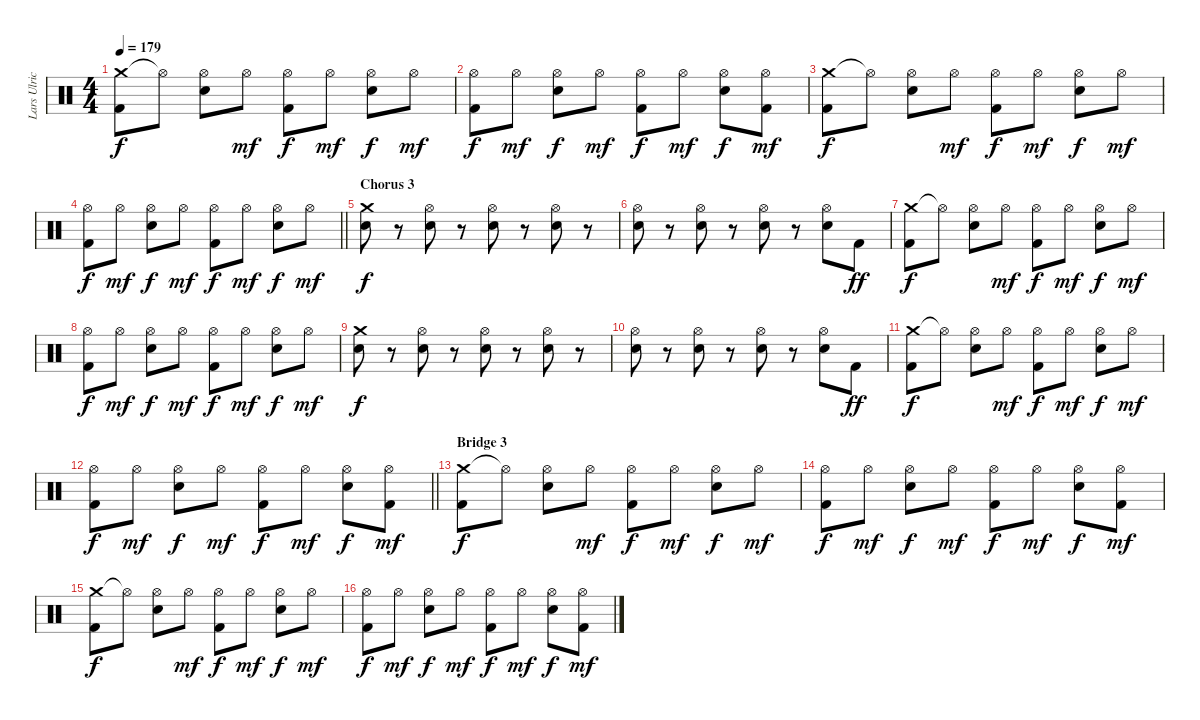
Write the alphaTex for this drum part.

\track ("Lars Ulrich" "Lars Ulric") {instrument percussion}
\staff {score}
\articulation defaults
\ts (4 4)
\tempo 179
\clef neutral
\ks c
("Crash medium (hit)" "Kick (hit) 2").8{dy f} "Hi-Hat (open)"{t}.8 ("Hi-Hat (open)" "Electric Snare (hit)").8 "Hi-Hat (open)".8{dy mf} ("Hi-Hat (open)" "Kick (hit) 2").8{dy f} "Hi-Hat (open)".8{dy mf} ("Hi-Hat (open)" "Electric Snare (hit)").8{dy f} "Hi-Hat (open)".8{dy mf} |
("Hi-Hat (open)" "Kick (hit) 2").8{dy f} "Hi-Hat (open)".8{dy mf} ("Hi-Hat (open)" "Electric Snare (hit)").8{dy f} "Hi-Hat (open)".8{dy mf} ("Hi-Hat (open)" "Kick (hit) 2").8{dy f} "Hi-Hat (open)".8{dy mf} ("Hi-Hat (open)" "Electric Snare (hit)").8{dy f} ("Hi-Hat (open)" "Kick (hit) 2").8{dy mf} |
("Crash medium (hit)" "Kick (hit) 2").8{dy f} "Hi-Hat (open)"{t}.8 ("Hi-Hat (open)" "Electric Snare (hit)").8 "Hi-Hat (open)".8{dy mf} ("Hi-Hat (open)" "Kick (hit) 2").8{dy f} "Hi-Hat (open)".8{dy mf} ("Hi-Hat (open)" "Electric Snare (hit)").8{dy f} "Hi-Hat (open)".8{dy mf} |
\barLineRight lightlight
("Hi-Hat (open)" "Kick (hit) 2").8{dy f} "Hi-Hat (open)".8{dy mf} ("Hi-Hat (open)" "Electric Snare (hit)").8{dy f} "Hi-Hat (open)".8{dy mf} ("Hi-Hat (open)" "Kick (hit) 2").8{dy f} "Hi-Hat (open)".8{dy mf} ("Hi-Hat (open)" "Electric Snare (hit)").8{dy f} "Hi-Hat (open)".8{dy mf} |
\section ("" "Chorus 3")
("Crash medium (hit)" "Electric Snare (hit)").8{dy f} r.8 ("Hi-Hat (open)" "Electric Snare (hit)").8 r.8 ("Hi-Hat (open)" "Electric Snare (hit)").8 r.8 ("Hi-Hat (open)" "Electric Snare (hit)").8 r.8 |
("Hi-Hat (open)" "Electric Snare (hit)").8 r.8 ("Hi-Hat (open)" "Electric Snare (hit)").8 r.8 ("Hi-Hat (open)" "Electric Snare (hit)").8 r.8 ("Hi-Hat (open)" "Electric Snare (hit)").8 "Kick (hit) 2".8{dy ff} |
("Crash medium (hit)" "Kick (hit) 2").8{dy f} "Hi-Hat (open)"{t}.8 ("Hi-Hat (open)" "Electric Snare (hit)").8 "Hi-Hat (open)".8{dy mf} ("Hi-Hat (open)" "Kick (hit) 2").8{dy f} "Hi-Hat (open)".8{dy mf} ("Hi-Hat (open)" "Electric Snare (hit)").8{dy f} "Hi-Hat (open)".8{dy mf} |
("Hi-Hat (open)" "Kick (hit) 2").8{dy f} "Hi-Hat (open)".8{dy mf} ("Hi-Hat (open)" "Electric Snare (hit)").8{dy f} "Hi-Hat (open)".8{dy mf} ("Hi-Hat (open)" "Kick (hit) 2").8{dy f} "Hi-Hat (open)".8{dy mf} ("Hi-Hat (open)" "Electric Snare (hit)").8{dy f} "Hi-Hat (open)".8{dy mf} |
("Crash medium (hit)" "Electric Snare (hit)").8{dy f} r.8 ("Hi-Hat (open)" "Electric Snare (hit)").8 r.8 ("Hi-Hat (open)" "Electric Snare (hit)").8 r.8 ("Hi-Hat (open)" "Electric Snare (hit)").8 r.8 |
("Hi-Hat (open)" "Electric Snare (hit)").8 r.8 ("Hi-Hat (open)" "Electric Snare (hit)").8 r.8 ("Hi-Hat (open)" "Electric Snare (hit)").8 r.8 ("Hi-Hat (open)" "Electric Snare (hit)").8 "Kick (hit) 2".8{dy ff} |
("Crash medium (hit)" "Kick (hit) 2").8{dy f} "Hi-Hat (open)"{t}.8 ("Hi-Hat (open)" "Electric Snare (hit)").8 "Hi-Hat (open)".8{dy mf} ("Hi-Hat (open)" "Kick (hit) 2").8{dy f} "Hi-Hat (open)".8{dy mf} ("Hi-Hat (open)" "Electric Snare (hit)").8{dy f} "Hi-Hat (open)".8{dy mf} |
\barLineRight lightlight
("Hi-Hat (open)" "Kick (hit) 2").8{dy f} "Hi-Hat (open)".8{dy mf} ("Hi-Hat (open)" "Electric Snare (hit)").8{dy f} "Hi-Hat (open)".8{dy mf} ("Hi-Hat (open)" "Kick (hit) 2").8{dy f} "Hi-Hat (open)".8{dy mf} ("Hi-Hat (open)" "Electric Snare (hit)").8{dy f} ("Hi-Hat (open)" "Kick (hit) 2").8{dy mf} |
\section ("" "Bridge 3")
("Crash medium (hit)" "Kick (hit) 2").8{dy f} "Hi-Hat (open)"{t}.8 ("Hi-Hat (open)" "Electric Snare (hit)").8 "Hi-Hat (open)".8{dy mf} ("Hi-Hat (open)" "Kick (hit) 2").8{dy f} "Hi-Hat (open)".8{dy mf} ("Hi-Hat (open)" "Electric Snare (hit)").8{dy f} "Hi-Hat (open)".8{dy mf} |
("Hi-Hat (open)" "Kick (hit) 2").8{dy f} "Hi-Hat (open)".8{dy mf} ("Hi-Hat (open)" "Electric Snare (hit)").8{dy f} "Hi-Hat (open)".8{dy mf} ("Hi-Hat (open)" "Kick (hit) 2").8{dy f} "Hi-Hat (open)".8{dy mf} ("Hi-Hat (open)" "Electric Snare (hit)").8{dy f} ("Hi-Hat (open)" "Kick (hit) 2").8{dy mf} |
("Crash medium (hit)" "Kick (hit) 2").8{dy f} "Hi-Hat (open)"{t}.8 ("Hi-Hat (open)" "Electric Snare (hit)").8 "Hi-Hat (open)".8{dy mf} ("Hi-Hat (open)" "Kick (hit) 2").8{dy f} "Hi-Hat (open)".8{dy mf} ("Hi-Hat (open)" "Electric Snare (hit)").8{dy f} "Hi-Hat (open)".8{dy mf} |
("Hi-Hat (open)" "Kick (hit) 2").8{dy f} "Hi-Hat (open)".8{dy mf} ("Hi-Hat (open)" "Electric Snare (hit)").8{dy f} "Hi-Hat (open)".8{dy mf} ("Hi-Hat (open)" "Kick (hit) 2").8{dy f} "Hi-Hat (open)".8{dy mf} ("Hi-Hat (open)" "Electric Snare (hit)").8{dy f} ("Hi-Hat (open)" "Kick (hit) 2").8{dy mf}
